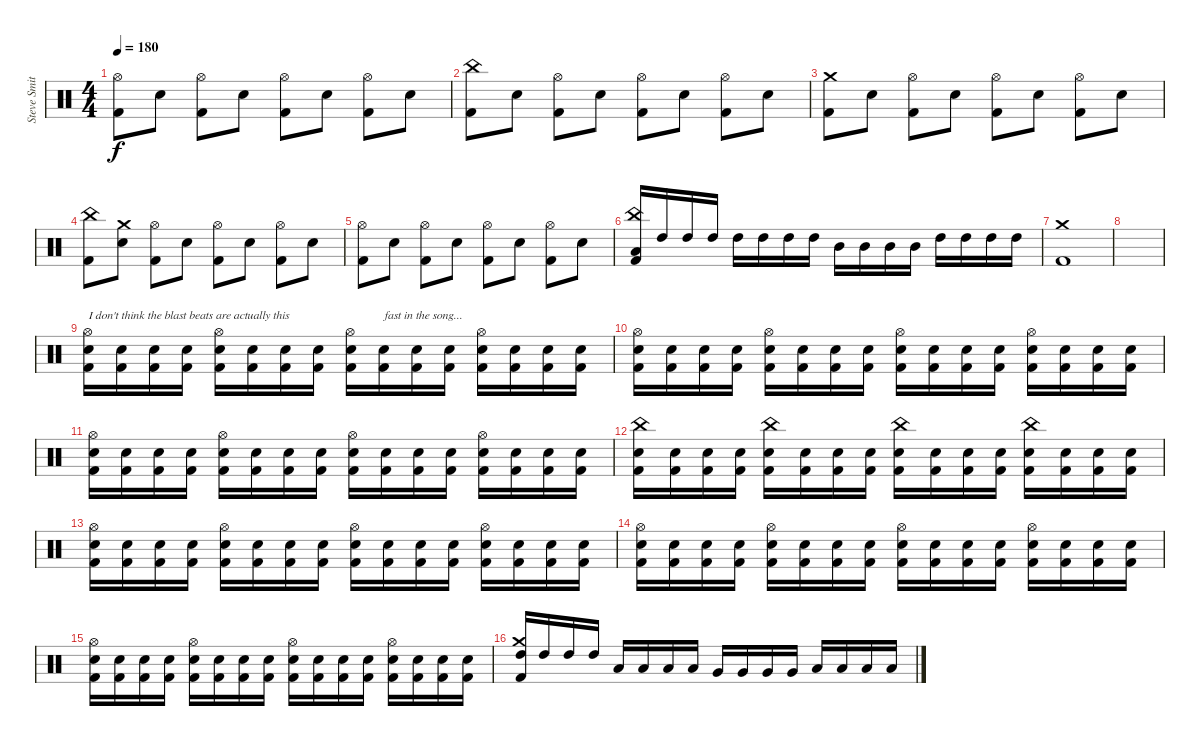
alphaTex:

\track ("Steve Smith" "Steve Smit") {instrument percussion}
\staff {score}
\articulation defaults
\ts (4 4)
\tempo 180
\clef neutral
\ks c
("Hi-Hat (open)" "Kick (hit) 2").8{dy f} "Electric Snare (hit)".8 ("Hi-Hat (open)" "Kick (hit) 2").8 "Electric Snare (hit)".8 ("Hi-Hat (open)" "Kick (hit) 2").8 "Electric Snare (hit)".8 ("Hi-Hat (open)" "Kick (hit) 2").8 "Electric Snare (hit)".8 |
("China (hit)" "Kick (hit) 2").8 "Electric Snare (hit)".8 ("Hi-Hat (open)" "Kick (hit) 2").8 "Electric Snare (hit)".8 ("Hi-Hat (open)" "Kick (hit) 2").8 "Electric Snare (hit)".8 ("Hi-Hat (open)" "Kick (hit) 2").8 "Electric Snare (hit)".8 |
("Crash medium (hit)" "Kick (hit) 2").8 "Electric Snare (hit)".8 ("Hi-Hat (open)" "Kick (hit) 2").8 "Electric Snare (hit)".8 ("Hi-Hat (open)" "Kick (hit) 2").8 "Electric Snare (hit)".8 ("Hi-Hat (open)" "Kick (hit) 2").8 "Electric Snare (hit)".8 |
("China (hit)" "Kick (hit) 2").8 ("Crash medium (hit)" "Electric Snare (hit)").8 ("Hi-Hat (open)" "Kick (hit) 2").8 "Electric Snare (hit)".8 ("Hi-Hat (open)" "Kick (hit) 2").8 "Electric Snare (hit)".8 ("Hi-Hat (open)" "Kick (hit) 2").8 "Electric Snare (hit)".8 |
("Hi-Hat (open)" "Kick (hit) 2").8 "Electric Snare (hit)".8 ("Hi-Hat (open)" "Kick (hit) 2").8 "Electric Snare (hit)".8 ("Hi-Hat (open)" "Kick (hit) 2").8 "Electric Snare (hit)".8 ("Hi-Hat (open)" "Kick (hit) 2").8 "Electric Snare (hit)".8 |
("China (hit)" "Low Tom (hit)" "Kick (hit) 2").16 "High Tom (hit)".16 "High Tom (hit)".16 "High Tom (hit)".16 "High Tom (hit)".16 "High Tom (hit)".16 "High Tom (hit)".16 "High Tom (hit)".16 "Mid Tom (hit)".16 "Mid Tom (hit)".16 "Mid Tom (hit)".16 "Mid Tom (hit)".16 "High Tom (hit)".16 "High Tom (hit)".16 "High Tom (hit)".16 "High Tom (hit)".16 |
("Crash medium (hit)" "Kick (hit) 2").1 |
|
("Hi-Hat (open)" "Electric Snare (hit)" "Kick (hit) 2").16{txt "I don't think the blast beats are actually this"} ("Electric Snare (hit)" "Kick (hit) 2").16 ("Electric Snare (hit)" "Kick (hit) 2").16 ("Electric Snare (hit)" "Kick (hit) 2").16 ("Hi-Hat (open)" "Electric Snare (hit)" "Kick (hit) 2").16 ("Electric Snare (hit)" "Kick (hit) 2").16 ("Electric Snare (hit)" "Kick (hit) 2").16 ("Electric Snare (hit)" "Kick (hit) 2").16 ("Hi-Hat (open)" "Electric Snare (hit)" "Kick (hit) 2").16 ("Electric Snare (hit)" "Kick (hit) 2").16{txt "fast in the song..."} ("Electric Snare (hit)" "Kick (hit) 2").16 ("Electric Snare (hit)" "Kick (hit) 2").16 ("Hi-Hat (open)" "Electric Snare (hit)" "Kick (hit) 2").16 ("Electric Snare (hit)" "Kick (hit) 2").16 ("Electric Snare (hit)" "Kick (hit) 2").16 ("Electric Snare (hit)" "Kick (hit) 2").16 |
("Hi-Hat (open)" "Electric Snare (hit)" "Kick (hit) 2").16 ("Electric Snare (hit)" "Kick (hit) 2").16 ("Electric Snare (hit)" "Kick (hit) 2").16 ("Electric Snare (hit)" "Kick (hit) 2").16 ("Hi-Hat (open)" "Electric Snare (hit)" "Kick (hit) 2").16 ("Electric Snare (hit)" "Kick (hit) 2").16 ("Electric Snare (hit)" "Kick (hit) 2").16 ("Electric Snare (hit)" "Kick (hit) 2").16 ("Hi-Hat (open)" "Electric Snare (hit)" "Kick (hit) 2").16 ("Electric Snare (hit)" "Kick (hit) 2").16 ("Electric Snare (hit)" "Kick (hit) 2").16 ("Electric Snare (hit)" "Kick (hit) 2").16 ("Hi-Hat (open)" "Electric Snare (hit)" "Kick (hit) 2").16 ("Electric Snare (hit)" "Kick (hit) 2").16 ("Electric Snare (hit)" "Kick (hit) 2").16 ("Electric Snare (hit)" "Kick (hit) 2").16 |
("Hi-Hat (open)" "Electric Snare (hit)" "Kick (hit) 2").16 ("Electric Snare (hit)" "Kick (hit) 2").16 ("Electric Snare (hit)" "Kick (hit) 2").16 ("Electric Snare (hit)" "Kick (hit) 2").16 ("Hi-Hat (open)" "Electric Snare (hit)" "Kick (hit) 2").16 ("Electric Snare (hit)" "Kick (hit) 2").16 ("Electric Snare (hit)" "Kick (hit) 2").16 ("Electric Snare (hit)" "Kick (hit) 2").16 ("Hi-Hat (open)" "Electric Snare (hit)" "Kick (hit) 2").16 ("Electric Snare (hit)" "Kick (hit) 2").16 ("Electric Snare (hit)" "Kick (hit) 2").16 ("Electric Snare (hit)" "Kick (hit) 2").16 ("Hi-Hat (open)" "Electric Snare (hit)" "Kick (hit) 2").16 ("Electric Snare (hit)" "Kick (hit) 2").16 ("Electric Snare (hit)" "Kick (hit) 2").16 ("Electric Snare (hit)" "Kick (hit) 2").16 |
("China (hit)" "Electric Snare (hit)" "Kick (hit) 2").16 ("Electric Snare (hit)" "Kick (hit) 2").16 ("Electric Snare (hit)" "Kick (hit) 2").16 ("Electric Snare (hit)" "Kick (hit) 2").16 ("China (hit)" "Electric Snare (hit)" "Kick (hit) 2").16 ("Electric Snare (hit)" "Kick (hit) 2").16 ("Electric Snare (hit)" "Kick (hit) 2").16 ("Electric Snare (hit)" "Kick (hit) 2").16 ("China (hit)" "Electric Snare (hit)" "Kick (hit) 2").16 ("Electric Snare (hit)" "Kick (hit) 2").16 ("Electric Snare (hit)" "Kick (hit) 2").16 ("Electric Snare (hit)" "Kick (hit) 2").16 ("China (hit)" "Electric Snare (hit)" "Kick (hit) 2").16 ("Electric Snare (hit)" "Kick (hit) 2").16 ("Electric Snare (hit)" "Kick (hit) 2").16 ("Electric Snare (hit)" "Kick (hit) 2").16 |
("Hi-Hat (open)" "Electric Snare (hit)" "Kick (hit) 2").16 ("Electric Snare (hit)" "Kick (hit) 2").16 ("Electric Snare (hit)" "Kick (hit) 2").16 ("Electric Snare (hit)" "Kick (hit) 2").16 ("Hi-Hat (open)" "Electric Snare (hit)" "Kick (hit) 2").16 ("Electric Snare (hit)" "Kick (hit) 2").16 ("Electric Snare (hit)" "Kick (hit) 2").16 ("Electric Snare (hit)" "Kick (hit) 2").16 ("Hi-Hat (open)" "Electric Snare (hit)" "Kick (hit) 2").16 ("Electric Snare (hit)" "Kick (hit) 2").16 ("Electric Snare (hit)" "Kick (hit) 2").16 ("Electric Snare (hit)" "Kick (hit) 2").16 ("Hi-Hat (open)" "Electric Snare (hit)" "Kick (hit) 2").16 ("Electric Snare (hit)" "Kick (hit) 2").16 ("Electric Snare (hit)" "Kick (hit) 2").16 ("Electric Snare (hit)" "Kick (hit) 2").16 |
("Hi-Hat (open)" "Electric Snare (hit)" "Kick (hit) 2").16 ("Electric Snare (hit)" "Kick (hit) 2").16 ("Electric Snare (hit)" "Kick (hit) 2").16 ("Electric Snare (hit)" "Kick (hit) 2").16 ("Hi-Hat (open)" "Electric Snare (hit)" "Kick (hit) 2").16 ("Electric Snare (hit)" "Kick (hit) 2").16 ("Electric Snare (hit)" "Kick (hit) 2").16 ("Electric Snare (hit)" "Kick (hit) 2").16 ("Hi-Hat (open)" "Electric Snare (hit)" "Kick (hit) 2").16 ("Electric Snare (hit)" "Kick (hit) 2").16 ("Electric Snare (hit)" "Kick (hit) 2").16 ("Electric Snare (hit)" "Kick (hit) 2").16 ("Hi-Hat (open)" "Electric Snare (hit)" "Kick (hit) 2").16 ("Electric Snare (hit)" "Kick (hit) 2").16 ("Electric Snare (hit)" "Kick (hit) 2").16 ("Electric Snare (hit)" "Kick (hit) 2").16 |
("Hi-Hat (open)" "Electric Snare (hit)" "Kick (hit) 2").16 ("Electric Snare (hit)" "Kick (hit) 2").16 ("Electric Snare (hit)" "Kick (hit) 2").16 ("Electric Snare (hit)" "Kick (hit) 2").16 ("Hi-Hat (open)" "Electric Snare (hit)" "Kick (hit) 2").16 ("Electric Snare (hit)" "Kick (hit) 2").16 ("Electric Snare (hit)" "Kick (hit) 2").16 ("Electric Snare (hit)" "Kick (hit) 2").16 ("Hi-Hat (open)" "Electric Snare (hit)" "Kick (hit) 2").16 ("Electric Snare (hit)" "Kick (hit) 2").16 ("Electric Snare (hit)" "Kick (hit) 2").16 ("Electric Snare (hit)" "Kick (hit) 2").16 ("Hi-Hat (open)" "Electric Snare (hit)" "Kick (hit) 2").16 ("Electric Snare (hit)" "Kick (hit) 2").16 ("Electric Snare (hit)" "Kick (hit) 2").16 ("Electric Snare (hit)" "Kick (hit) 2").16 |
("Crash medium (hit)" "High Tom (hit)" "Kick (hit) 2").16 "High Tom (hit)".16 "High Tom (hit)".16 "High Tom (hit)".16 "Low Tom (hit)".16 "Low Tom (hit)".16 "Low Tom (hit)".16 "Low Tom (hit)".16 "Very Low Tom (hit)".16 "Very Low Tom (hit)".16 "Very Low Tom (hit)".16 "Very Low Tom (hit)".16 "Low Floor Tom (hit)".16 "Low Floor Tom (hit)".16 "Low Floor Tom (hit)".16 "Low Floor Tom (hit)".16
